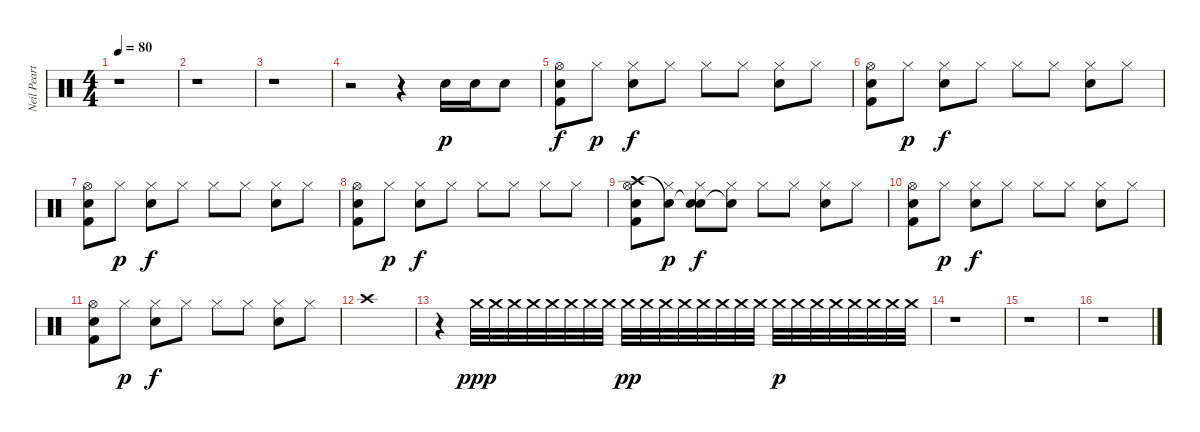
\track ("Neil Peart" "Neil Peart") {instrument percussion}
\staff {score}
\articulation defaults
\ts (4 4)
\tempo 80
\clef neutral
\ks c
r.1{dy p} |
r.1 |
r.1 |
r.2 r.4 "Snare (hit) 2".16 "Snare (hit) 2".16 "Snare (hit) 2".8 |
("Hi-Hat (open)" "Snare (hit) 2" "Kick (hit) 2").8{dy f} "Hi-Hat (closed)".8{dy p} ("Hi-Hat (closed)" "Snare (hit) 2").8{dy f} "Hi-Hat (closed)".8 "Hi-Hat (closed)".8 "Hi-Hat (closed)".8 ("Hi-Hat (closed)" "Snare (hit) 2").8 "Hi-Hat (closed)".8 |
("Hi-Hat (open)" "Snare (hit) 2" "Kick (hit) 2").8 "Hi-Hat (closed)".8{dy p} ("Hi-Hat (closed)" "Snare (hit) 2").8{dy f} "Hi-Hat (closed)".8 "Hi-Hat (closed)".8 "Hi-Hat (closed)".8 ("Hi-Hat (closed)" "Snare (hit) 2").8 "Hi-Hat (closed)".8 |
("Hi-Hat (open)" "Snare (hit) 2" "Kick (hit) 2").8 "Hi-Hat (closed)".8{dy p} ("Hi-Hat (closed)" "Snare (hit) 2").8{dy f} "Hi-Hat (closed)".8 "Hi-Hat (closed)".8 "Hi-Hat (closed)".8 ("Hi-Hat (closed)" "Snare (hit) 2").8 "Hi-Hat (closed)".8 |
("Hi-Hat (open)" "Snare (hit) 2" "Kick (hit) 2").8 "Hi-Hat (closed)".8{dy p} ("Hi-Hat (closed)" "Snare (hit) 2").8{dy f} "Hi-Hat (closed)".8 "Hi-Hat (closed)".8 "Hi-Hat (closed)".8 "Hi-Hat (closed)".8 "Hi-Hat (closed)".8 |
("Crash high (hit)" "Hi-Hat (open)" "Snare (hit) 2" "Kick (hit) 2").8 ("Snare (hit)"{t} "Hi-Hat (closed)").8{dy p} ("Snare (hit)"{t} "Hi-Hat (closed)" "Snare (hit) 2").8{dy f} ("Snare (hit)"{t} "Hi-Hat (closed)").8 "Hi-Hat (closed)".8 "Hi-Hat (closed)".8 ("Hi-Hat (closed)" "Snare (hit) 2").8 "Hi-Hat (closed)".8 |
("Hi-Hat (open)" "Snare (hit) 2" "Kick (hit) 2").8 "Hi-Hat (closed)".8{dy p} ("Hi-Hat (closed)" "Snare (hit) 2").8{dy f} "Hi-Hat (closed)".8 "Hi-Hat (closed)".8 "Hi-Hat (closed)".8 ("Hi-Hat (closed)" "Snare (hit) 2").8 "Hi-Hat (closed)".8 |
("Hi-Hat (open)" "Snare (hit) 2" "Kick (hit) 2").8 "Hi-Hat (closed)".8{dy p} ("Hi-Hat (closed)" "Snare (hit) 2").8{dy f} "Hi-Hat (closed)".8 "Hi-Hat (closed)".8 "Hi-Hat (closed)".8 ("Hi-Hat (closed)" "Snare (hit) 2").8 "Hi-Hat (closed)".8 |
"Crash high (hit)".1 |
r.4 "Crash medium (hit)".32{dy ppp} "Crash medium (hit)".32 "Crash medium (hit)".32 "Crash medium (hit)".32 "Crash medium (hit)".32 "Crash medium (hit)".32 "Crash medium (hit)".32 "Crash medium (hit)".32 "Crash medium (hit)".32{dy pp} "Crash medium (hit)".32 "Crash medium (hit)".32 "Crash medium (hit)".32 "Crash medium (hit)".32 "Crash medium (hit)".32 "Crash medium (hit)".32 "Crash medium (hit)".32 "Crash medium (hit)".32{dy p} "Crash medium (hit)".32 "Crash medium (hit)".32 "Crash medium (hit)".32 "Crash medium (hit)".32 "Crash medium (hit)".32 "Crash medium (hit)".32 "Crash medium (hit)".32 |
r.1 |
r.1 |
r.1
